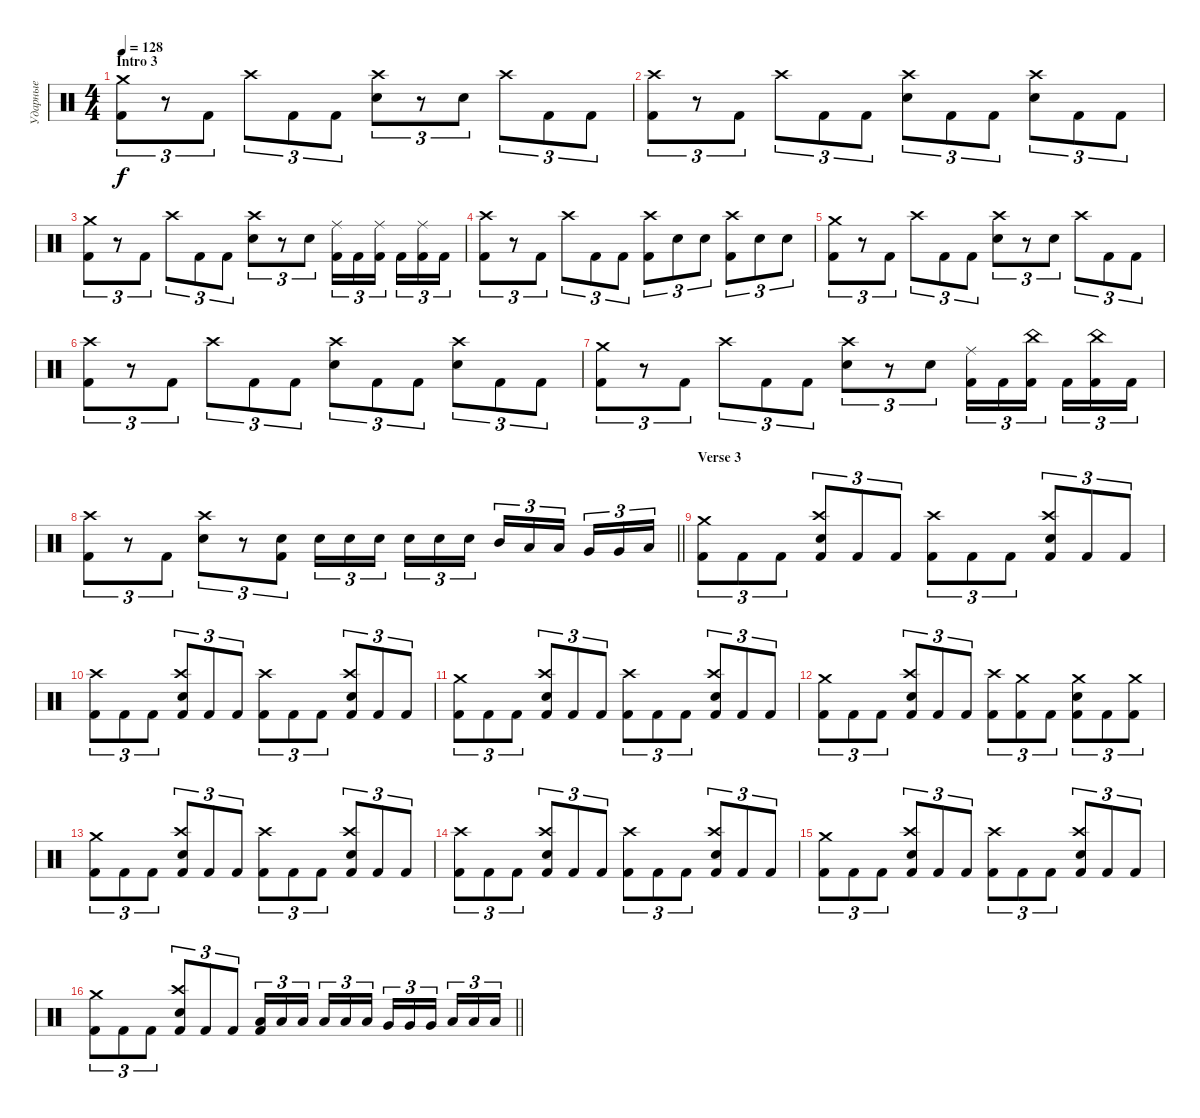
\track ("Ударные" "Ударные") {instrument percussion}
\staff {score}
\articulation defaults
\ts (4 4)
\section ("" "Intro 3")
\tempo 128
\clef neutral
\ks c
("Crash medium (hit)" "Kick (hit) 2").8{tu (3 2) dy f} r.8{tu (3 2)} "Kick (hit) 2".8{tu (3 2)} "Crash high (hit)".8{tu (3 2)} "Kick (hit) 2".8{tu (3 2)} "Kick (hit) 2".8{tu (3 2)} ("Crash high (hit)" "Electric Snare (hit)").8{tu (3 2)} r.8{tu (3 2)} "Electric Snare (hit)".8{tu (3 2)} "Crash high (hit)".8{tu (3 2)} "Kick (hit) 2".8{tu (3 2)} "Kick (hit) 2".8{tu (3 2)} |
("Crash high (hit)" "Kick (hit) 2").8{tu (3 2)} r.8{tu (3 2)} "Kick (hit) 2".8{tu (3 2)} "Crash high (hit)".8{tu (3 2)} "Kick (hit) 2".8{tu (3 2)} "Kick (hit) 2".8{tu (3 2)} ("Crash high (hit)" "Electric Snare (hit)").8{tu (3 2)} "Kick (hit) 2".8{tu (3 2)} "Kick (hit) 2".8{tu (3 2)} ("Crash high (hit)" "Electric Snare (hit)").8{tu (3 2)} "Kick (hit) 2".8{tu (3 2)} "Kick (hit) 2".8{tu (3 2)} |
("Crash medium (hit)" "Kick (hit) 2").8{tu (3 2)} r.8{tu (3 2)} "Kick (hit) 2".8{tu (3 2)} "Crash high (hit)".8{tu (3 2)} "Kick (hit) 2".8{tu (3 2)} "Kick (hit) 2".8{tu (3 2)} ("Crash high (hit)" "Electric Snare (hit)").8{tu (3 2)} r.8{tu (3 2)} "Electric Snare (hit)".8{tu (3 2)} ("Ride (middle)" "Kick (hit) 2").16{tu (3 2)} "Kick (hit) 2".16{tu (3 2)} ("Ride (middle)" "Kick (hit) 2").16{tu (3 2) beam splitsecondary} "Kick (hit) 2".16{tu (3 2)} ("Ride (middle)" "Kick (hit) 2").16{tu (3 2)} "Kick (hit) 2".16{tu (3 2)} |
("Crash high (hit)" "Kick (hit) 2").8{tu (3 2)} r.8{tu (3 2)} "Kick (hit) 2".8{tu (3 2)} "Crash high (hit)".8{tu (3 2)} "Kick (hit) 2".8{tu (3 2)} "Kick (hit) 2".8{tu (3 2)} ("Crash high (hit)" "Kick (hit) 2").8{tu (3 2)} "Electric Snare (hit)".8{tu (3 2)} "Electric Snare (hit)".8{tu (3 2)} ("Crash high (hit)" "Kick (hit) 2").8{tu (3 2)} "Electric Snare (hit)".8{tu (3 2)} "Electric Snare (hit)".8{tu (3 2)} |
("Crash medium (hit)" "Kick (hit) 2").8{tu (3 2)} r.8{tu (3 2)} "Kick (hit) 2".8{tu (3 2)} "Crash high (hit)".8{tu (3 2)} "Kick (hit) 2".8{tu (3 2)} "Kick (hit) 2".8{tu (3 2)} ("Crash high (hit)" "Electric Snare (hit)").8{tu (3 2)} r.8{tu (3 2)} "Electric Snare (hit)".8{tu (3 2)} "Crash high (hit)".8{tu (3 2)} "Kick (hit) 2".8{tu (3 2)} "Kick (hit) 2".8{tu (3 2)} |
("Crash high (hit)" "Kick (hit) 2").8{tu (3 2)} r.8{tu (3 2)} "Kick (hit) 2".8{tu (3 2)} "Crash high (hit)".8{tu (3 2)} "Kick (hit) 2".8{tu (3 2)} "Kick (hit) 2".8{tu (3 2)} ("Crash high (hit)" "Electric Snare (hit)").8{tu (3 2)} "Kick (hit) 2".8{tu (3 2)} "Kick (hit) 2".8{tu (3 2)} ("Crash high (hit)" "Electric Snare (hit)").8{tu (3 2)} "Kick (hit) 2".8{tu (3 2)} "Kick (hit) 2".8{tu (3 2)} |
("Crash medium (hit)" "Kick (hit) 2").8{tu (3 2)} r.8{tu (3 2)} "Kick (hit) 2".8{tu (3 2)} "Crash high (hit)".8{tu (3 2)} "Kick (hit) 2".8{tu (3 2)} "Kick (hit) 2".8{tu (3 2)} ("Crash high (hit)" "Electric Snare (hit)").8{tu (3 2)} r.8{tu (3 2)} "Electric Snare (hit)".8{tu (3 2)} ("Ride (middle)" "Kick (hit) 2").16{tu (3 2)} "Kick (hit) 2".16{tu (3 2)} ("China (hit)" "Kick (hit) 2").16{tu (3 2) beam splitsecondary} "Kick (hit) 2".16{tu (3 2)} ("China (hit)" "Kick (hit) 2").16{tu (3 2)} "Kick (hit) 2".16{tu (3 2)} |
\barLineRight lightlight
("Crash high (hit)" "Kick (hit) 2").8{tu (3 2)} r.8{tu (3 2)} "Kick (hit) 2".8{tu (3 2)} ("Crash high (hit)" "Electric Snare (hit)").8{tu (3 2)} r.8{tu (3 2)} ("Electric Snare (hit)" "Kick (hit) 2").8{tu (3 2)} "Electric Snare (hit)".16{tu (3 2)} "Electric Snare (hit)".16{tu (3 2)} "Electric Snare (hit)".16{tu (3 2) beam splitsecondary} "Electric Snare (hit)".16{tu (3 2)} "Electric Snare (hit)".16{tu (3 2)} "Electric Snare (hit)".16{tu (3 2)} "Mid Tom (hit)".16{tu (3 2)} "Low Tom (hit)".16{tu (3 2)} "Low Tom (hit)".16{tu (3 2) beam splitsecondary} "Very Low Tom (hit)".16{tu (3 2)} "Very Low Tom (hit)".16{tu (3 2)} "Low Floor Tom (hit)".16{tu (3 2)} |
\section ("" "Verse 3")
("Crash medium (hit)" "Kick (hit) 2").8{tu (3 2)} "Kick (hit) 2".8{tu (3 2)} "Kick (hit) 2".8{tu (3 2)} ("Crash high (hit)" "Electric Snare (hit)" "Kick (hit) 2").8{tu (3 2)} "Kick (hit) 2".8{tu (3 2)} "Kick (hit) 2".8{tu (3 2)} ("Crash high (hit)" "Kick (hit) 2").8{tu (3 2)} "Kick (hit) 2".8{tu (3 2)} "Kick (hit) 2".8{tu (3 2)} ("Crash high (hit)" "Electric Snare (hit)" "Kick (hit) 2").8{tu (3 2)} "Kick (hit) 2".8{tu (3 2)} "Kick (hit) 2".8{tu (3 2)} |
("Crash high (hit)" "Kick (hit) 2").8{tu (3 2)} "Kick (hit) 2".8{tu (3 2)} "Kick (hit) 2".8{tu (3 2)} ("Crash high (hit)" "Electric Snare (hit)" "Kick (hit) 2").8{tu (3 2)} "Kick (hit) 2".8{tu (3 2)} "Kick (hit) 2".8{tu (3 2)} ("Crash high (hit)" "Kick (hit) 2").8{tu (3 2)} "Kick (hit) 2".8{tu (3 2)} "Kick (hit) 2".8{tu (3 2)} ("Crash high (hit)" "Electric Snare (hit)" "Kick (hit) 2").8{tu (3 2)} "Kick (hit) 2".8{tu (3 2)} "Kick (hit) 2".8{tu (3 2)} |
("Crash medium (hit)" "Kick (hit) 2").8{tu (3 2)} "Kick (hit) 2".8{tu (3 2)} "Kick (hit) 2".8{tu (3 2)} ("Crash high (hit)" "Electric Snare (hit)" "Kick (hit) 2").8{tu (3 2)} "Kick (hit) 2".8{tu (3 2)} "Kick (hit) 2".8{tu (3 2)} ("Crash high (hit)" "Kick (hit) 2").8{tu (3 2)} "Kick (hit) 2".8{tu (3 2)} "Kick (hit) 2".8{tu (3 2)} ("Crash high (hit)" "Electric Snare (hit)" "Kick (hit) 2").8{tu (3 2)} "Kick (hit) 2".8{tu (3 2)} "Kick (hit) 2".8{tu (3 2)} |
("Crash medium (hit)" "Kick (hit) 2").8{tu (3 2)} "Kick (hit) 2".8{tu (3 2)} "Kick (hit) 2".8{tu (3 2)} ("Crash high (hit)" "Electric Snare (hit)" "Kick (hit) 2").8{tu (3 2)} "Kick (hit) 2".8{tu (3 2)} "Kick (hit) 2".8{tu (3 2)} ("Crash high (hit)" "Kick (hit) 2").8{tu (3 2)} ("Crash medium (hit)" "Kick (hit) 2").8{tu (3 2)} "Kick (hit) 2".8{tu (3 2)} ("Crash medium (hit)" "Electric Snare (hit)" "Kick (hit) 2").8{tu (3 2)} "Kick (hit) 2".8{tu (3 2)} ("Crash medium (hit)" "Kick (hit) 2").8{tu (3 2)} |
("Crash medium (hit)" "Kick (hit) 2").8{tu (3 2)} "Kick (hit) 2".8{tu (3 2)} "Kick (hit) 2".8{tu (3 2)} ("Crash high (hit)" "Electric Snare (hit)" "Kick (hit) 2").8{tu (3 2)} "Kick (hit) 2".8{tu (3 2)} "Kick (hit) 2".8{tu (3 2)} ("Crash high (hit)" "Kick (hit) 2").8{tu (3 2)} "Kick (hit) 2".8{tu (3 2)} "Kick (hit) 2".8{tu (3 2)} ("Crash high (hit)" "Electric Snare (hit)" "Kick (hit) 2").8{tu (3 2)} "Kick (hit) 2".8{tu (3 2)} "Kick (hit) 2".8{tu (3 2)} |
("Crash high (hit)" "Kick (hit) 2").8{tu (3 2)} "Kick (hit) 2".8{tu (3 2)} "Kick (hit) 2".8{tu (3 2)} ("Crash high (hit)" "Electric Snare (hit)" "Kick (hit) 2").8{tu (3 2)} "Kick (hit) 2".8{tu (3 2)} "Kick (hit) 2".8{tu (3 2)} ("Crash high (hit)" "Kick (hit) 2").8{tu (3 2)} "Kick (hit) 2".8{tu (3 2)} "Kick (hit) 2".8{tu (3 2)} ("Crash high (hit)" "Electric Snare (hit)" "Kick (hit) 2").8{tu (3 2)} "Kick (hit) 2".8{tu (3 2)} "Kick (hit) 2".8{tu (3 2)} |
("Crash medium (hit)" "Kick (hit) 2").8{tu (3 2)} "Kick (hit) 2".8{tu (3 2)} "Kick (hit) 2".8{tu (3 2)} ("Crash high (hit)" "Electric Snare (hit)" "Kick (hit) 2").8{tu (3 2)} "Kick (hit) 2".8{tu (3 2)} "Kick (hit) 2".8{tu (3 2)} ("Crash high (hit)" "Kick (hit) 2").8{tu (3 2)} "Kick (hit) 2".8{tu (3 2)} "Kick (hit) 2".8{tu (3 2)} ("Crash high (hit)" "Electric Snare (hit)" "Kick (hit) 2").8{tu (3 2)} "Kick (hit) 2".8{tu (3 2)} "Kick (hit) 2".8{tu (3 2)} |
\barLineRight lightlight
("Crash medium (hit)" "Kick (hit) 2").8{tu (3 2)} "Kick (hit) 2".8{tu (3 2)} "Kick (hit) 2".8{tu (3 2)} ("Crash high (hit)" "Electric Snare (hit)" "Kick (hit) 2").8{tu (3 2)} "Kick (hit) 2".8{tu (3 2)} "Kick (hit) 2".8{tu (3 2)} ("Low Tom (hit)" "Kick (hit) 2").16{tu (3 2)} "Low Tom (hit)".16{tu (3 2)} "Low Tom (hit)".16{tu (3 2) beam splitsecondary} "Low Tom (hit)".16{tu (3 2)} "Low Tom (hit)".16{tu (3 2)} "Low Tom (hit)".16{tu (3 2)} "Very Low Tom (hit)".16{tu (3 2)} "Very Low Tom (hit)".16{tu (3 2)} "Very Low Tom (hit)".16{tu (3 2) beam splitsecondary} "Low Floor Tom (hit)".16{tu (3 2)} "Low Floor Tom (hit)".16{tu (3 2)} "Low Floor Tom (hit)".16{tu (3 2)}
